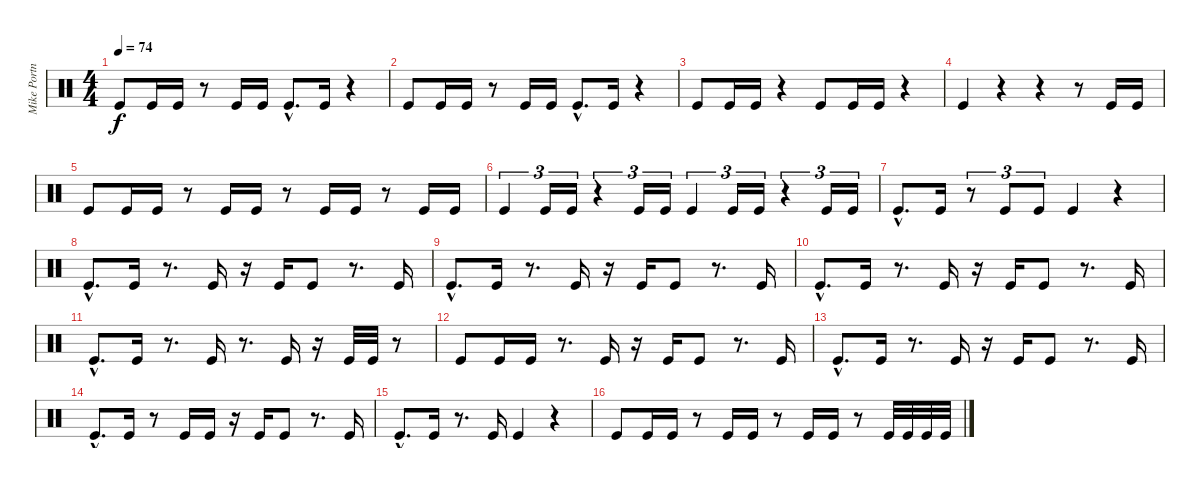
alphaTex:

\track ("Mike Portnoy" "Mike Portn") {instrument percussion}
\staff {score}
\articulation defaults
\ts (4 4)
\tempo 74
\clef neutral
\ks c "Kick (hit)".8{dy f} "Kick (hit)".16 "Kick (hit)".16
r.8 "Kick (hit)".16 "Kick (hit)".16 "Kick (hit)"{hac}.8{d} "Kick (hit)".16 r.4 |
"Kick (hit)".8 "Kick (hit)".16 "Kick (hit)".16 r.8 "Kick (hit)".16 "Kick (hit)".16 "Kick (hit)"{hac}.8{d} "Kick (hit)".16 r.4 |
"Kick (hit)".8 "Kick (hit)".16 "Kick (hit)".16 r.4 "Kick (hit)".8 "Kick (hit)".16 "Kick (hit)".16 r.4 |
"Kick (hit)".4 r.4 r.4 r.8 "Kick (hit)".16 "Kick (hit)".16 |
"Kick (hit)".8 "Kick (hit)".16 "Kick (hit)".16 r.8 "Kick (hit)".16 "Kick (hit)".16 r.8 "Kick (hit)".16 "Kick (hit)".16 r.8 "Kick (hit)".16 "Kick (hit)".16 |
"Kick (hit)".4{tu (3 2)} "Kick (hit)".16{tu (3 2)} "Kick (hit)".16{tu (3 2)} r.4{tu (3 2)} "Kick (hit)".16{tu (3 2)} "Kick (hit)".16{tu (3 2)} "Kick (hit)".4{tu (3 2)} "Kick (hit)".16{tu (3 2)} "Kick (hit)".16{tu (3 2)} r.4{tu (3 2)} "Kick (hit)".16{tu (3 2)} "Kick (hit)".16{tu (3 2)} |
"Kick (hit)"{hac}.8{d} "Kick (hit)".16 r.8{tu (3 2)} "Kick (hit)".8{tu (3 2)} "Kick (hit)".8{tu (3 2)} "Kick (hit)".4 r.4 |
"Kick (hit)"{hac}.8{d} "Kick (hit)".16 r.8{d} "Kick (hit)".16 r.16 "Kick (hit)".16 "Kick (hit)".8 r.8{d} "Kick (hit)".16 |
"Kick (hit)"{hac}.8{d} "Kick (hit)".16 r.8{d} "Kick (hit)".16 r.16 "Kick (hit)".16 "Kick (hit)".8 r.8{d} "Kick (hit)".16 |
"Kick (hit)"{hac}.8{d} "Kick (hit)".16 r.8{d} "Kick (hit)".16 r.16 "Kick (hit)".16 "Kick (hit)".8 r.8{d} "Kick (hit)".16 |
"Kick (hit)"{hac}.8{d} "Kick (hit)".16 r.8{d} "Kick (hit)".16 r.8{d} "Kick (hit)".16 r.16 "Kick (hit)".32 "Kick (hit)".32 r.8 |
"Kick (hit)".8 "Kick (hit)".16 "Kick (hit)".16 r.8{d} "Kick (hit)".16 r.16 "Kick (hit)".16 "Kick (hit)".8 r.8{d} "Kick (hit)".16 |
"Kick (hit)"{hac}.8{d} "Kick (hit)".16 r.8{d} "Kick (hit)".16 r.16 "Kick (hit)".16 "Kick (hit)".8 r.8{d} "Kick (hit)".16 |
"Kick (hit)"{hac}.8{d} "Kick (hit)".16 r.8 "Kick (hit)".16 "Kick (hit)".16 r.16 "Kick (hit)".16 "Kick (hit)".8 r.8{d} "Kick (hit)".16 |
"Kick (hit)"{hac}.8{d} "Kick (hit)".16 r.8{d} "Kick (hit)".16 "Kick (hit)".4 r.4 |
"Kick (hit)".8 "Kick (hit)".16 "Kick (hit)".16 r.8 "Kick (hit)".16 "Kick (hit)".16 r.8 "Kick (hit)".16 "Kick (hit)".16 r.8 "Kick (hit)".32 "Kick (hit)".32 "Kick (hit)".32 "Kick (hit)".32
